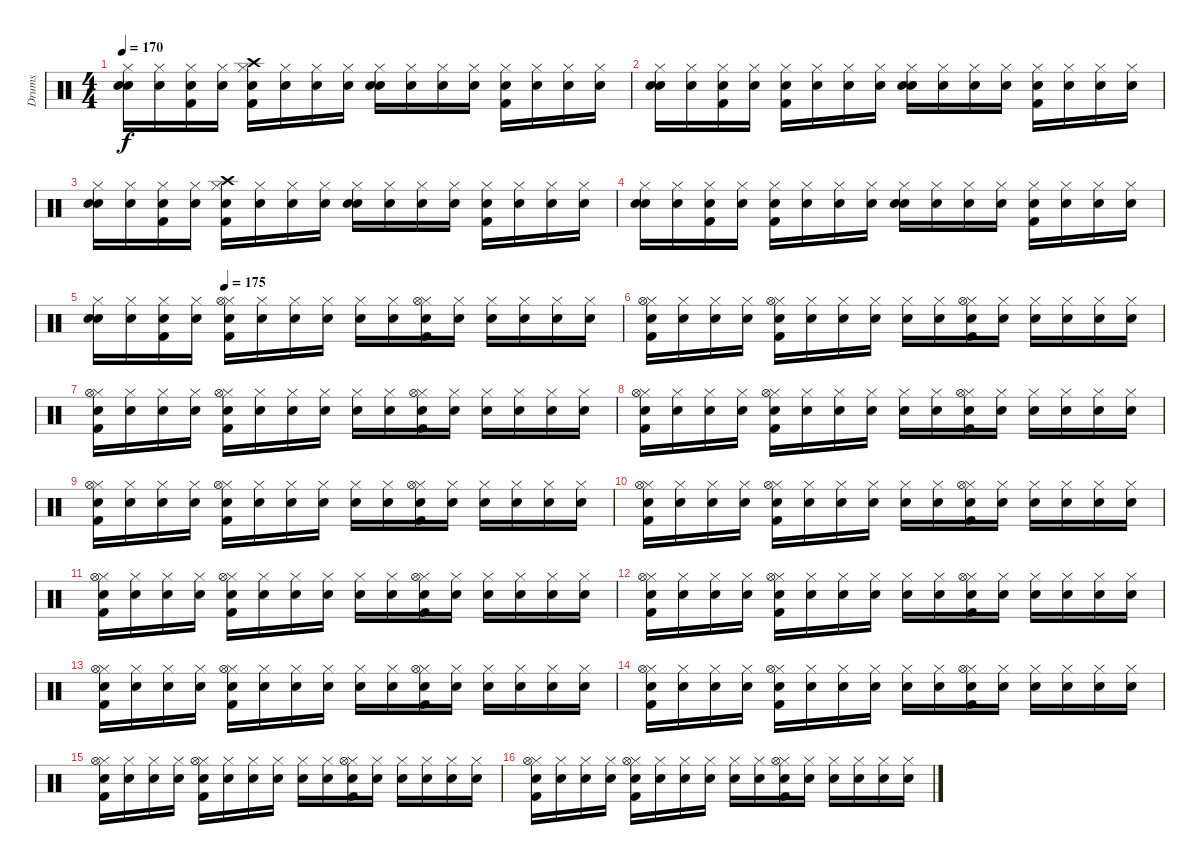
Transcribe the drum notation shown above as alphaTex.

\track ("Drums" "Drums") {instrument percussion}
\staff {score}
\articulation defaults
\ts (4 4)
\tempo 170
\clef neutral
\ks c
("Snare (hit)" "Snare (hit) 2" "Hi-Hat (closed)").16{dy f} ("Snare (hit)" "Hi-Hat (closed)").16 ("Snare (hit)" "Kick (hit) 2" "Hi-Hat (closed)").16 ("Snare (hit)" "Hi-Hat (closed)").16 ("Snare (hit)" "Kick (hit) 2" "Hi-Hat (closed)" "Crash high (hit)").16 ("Snare (hit)" "Hi-Hat (closed)").16 ("Snare (hit)" "Hi-Hat (closed)").16 ("Snare (hit)" "Hi-Hat (closed)").16 ("Snare (hit)" "Snare (hit) 2" "Hi-Hat (closed)").16 ("Snare (hit)" "Hi-Hat (closed)").16 ("Snare (hit)" "Hi-Hat (closed)").16 ("Snare (hit)" "Hi-Hat (closed)").16 ("Snare (hit)" "Kick (hit) 2" "Hi-Hat (closed)").16 ("Snare (hit)" "Hi-Hat (closed)").16 ("Snare (hit)" "Hi-Hat (closed)").16 ("Snare (hit)" "Hi-Hat (closed)").16 |
("Snare (hit)" "Snare (hit) 2" "Hi-Hat (closed)").16 ("Snare (hit)" "Hi-Hat (closed)").16 ("Snare (hit)" "Kick (hit) 2" "Hi-Hat (closed)").16 ("Snare (hit)" "Hi-Hat (closed)").16 ("Snare (hit)" "Kick (hit) 2" "Hi-Hat (closed)").16 ("Snare (hit)" "Hi-Hat (closed)").16 ("Snare (hit)" "Hi-Hat (closed)").16 ("Snare (hit)" "Hi-Hat (closed)").16 ("Snare (hit)" "Snare (hit) 2" "Hi-Hat (closed)").16 ("Snare (hit)" "Hi-Hat (closed)").16 ("Snare (hit)" "Hi-Hat (closed)").16 ("Snare (hit)" "Hi-Hat (closed)").16 ("Snare (hit)" "Kick (hit) 2" "Hi-Hat (closed)").16 ("Snare (hit)" "Hi-Hat (closed)").16 ("Snare (hit)" "Hi-Hat (closed)").16 ("Snare (hit)" "Hi-Hat (closed)").16 |
("Snare (hit)" "Snare (hit) 2" "Hi-Hat (closed)").16 ("Snare (hit)" "Hi-Hat (closed)").16 ("Snare (hit)" "Kick (hit) 2" "Hi-Hat (closed)").16 ("Snare (hit)" "Hi-Hat (closed)").16 ("Snare (hit)" "Kick (hit) 2" "Hi-Hat (closed)" "Crash high (hit)").16 ("Snare (hit)" "Hi-Hat (closed)").16 ("Snare (hit)" "Hi-Hat (closed)").16 ("Snare (hit)" "Hi-Hat (closed)").16 ("Snare (hit)" "Snare (hit) 2" "Hi-Hat (closed)").16 ("Snare (hit)" "Hi-Hat (closed)").16 ("Snare (hit)" "Hi-Hat (closed)").16 ("Snare (hit)" "Hi-Hat (closed)").16 ("Snare (hit)" "Kick (hit) 2" "Hi-Hat (closed)").16 ("Snare (hit)" "Hi-Hat (closed)").16 ("Snare (hit)" "Hi-Hat (closed)").16 ("Snare (hit)" "Hi-Hat (closed)").16 |
("Snare (hit)" "Snare (hit) 2" "Hi-Hat (closed)").16 ("Snare (hit)" "Hi-Hat (closed)").16 ("Snare (hit)" "Kick (hit) 2" "Hi-Hat (closed)").16 ("Snare (hit)" "Hi-Hat (closed)").16 ("Snare (hit)" "Kick (hit) 2" "Hi-Hat (closed)").16 ("Snare (hit)" "Hi-Hat (closed)").16 ("Snare (hit)" "Hi-Hat (closed)").16 ("Snare (hit)" "Hi-Hat (closed)").16 ("Snare (hit)" "Snare (hit) 2" "Hi-Hat (closed)").16 ("Snare (hit)" "Hi-Hat (closed)").16 ("Snare (hit)" "Hi-Hat (closed)").16 ("Snare (hit)" "Hi-Hat (closed)").16 ("Snare (hit)" "Kick (hit) 2" "Hi-Hat (closed)").16 ("Snare (hit)" "Hi-Hat (closed)").16 ("Snare (hit)" "Hi-Hat (closed)").16 ("Snare (hit)" "Hi-Hat (closed)").16 |
\tempo (175 0.25)
("Snare (hit)" "Snare (hit) 2" "Hi-Hat (closed)").16 ("Snare (hit)" "Hi-Hat (closed)").16 ("Snare (hit)" "Kick (hit) 2" "Hi-Hat (closed)").16 ("Snare (hit)" "Hi-Hat (closed)").16 ("Snare (hit)" "Kick (hit) 2" "Hi-Hat (closed)" "Hi-Hat (open)").16 ("Snare (hit)" "Hi-Hat (closed)").16 ("Snare (hit)" "Hi-Hat (closed)").16 ("Snare (hit)" "Hi-Hat (closed)").16 ("Snare (hit)" "Hi-Hat (closed)").16 ("Snare (hit)" "Hi-Hat (closed)").16 ("Snare (hit)" "Kick (hit) 2" "Hi-Hat (closed)" "Hi-Hat (open)").16 ("Snare (hit)" "Hi-Hat (closed)").16 ("Snare (hit)" "Hi-Hat (closed)").16 ("Snare (hit)" "Hi-Hat (closed)").16 ("Snare (hit)" "Hi-Hat (closed)").16 ("Snare (hit)" "Hi-Hat (closed)").16 |
("Snare (hit)" "Kick (hit) 2" "Hi-Hat (closed)" "Hi-Hat (open)").16 ("Snare (hit)" "Hi-Hat (closed)").16 ("Snare (hit)" "Hi-Hat (closed)").16 ("Snare (hit)" "Hi-Hat (closed)").16 ("Snare (hit)" "Kick (hit) 2" "Hi-Hat (closed)" "Hi-Hat (open)").16 ("Snare (hit)" "Hi-Hat (closed)").16 ("Snare (hit)" "Hi-Hat (closed)").16 ("Snare (hit)" "Hi-Hat (closed)").16 ("Snare (hit)" "Hi-Hat (closed)").16 ("Snare (hit)" "Hi-Hat (closed)").16 ("Snare (hit)" "Kick (hit) 2" "Hi-Hat (closed)" "Hi-Hat (open)").16 ("Snare (hit)" "Hi-Hat (closed)").16 ("Snare (hit)" "Hi-Hat (closed)").16 ("Snare (hit)" "Hi-Hat (closed)").16 ("Snare (hit)" "Hi-Hat (closed)").16 ("Snare (hit)" "Hi-Hat (closed)").16 |
("Snare (hit)" "Kick (hit) 2" "Hi-Hat (closed)" "Hi-Hat (open)").16 ("Snare (hit)" "Hi-Hat (closed)").16 ("Snare (hit)" "Hi-Hat (closed)").16 ("Snare (hit)" "Hi-Hat (closed)").16 ("Snare (hit)" "Kick (hit) 2" "Hi-Hat (closed)" "Hi-Hat (open)").16 ("Snare (hit)" "Hi-Hat (closed)").16 ("Snare (hit)" "Hi-Hat (closed)").16 ("Snare (hit)" "Hi-Hat (closed)").16 ("Snare (hit)" "Hi-Hat (closed)").16 ("Snare (hit)" "Hi-Hat (closed)").16 ("Snare (hit)" "Kick (hit) 2" "Hi-Hat (closed)" "Hi-Hat (open)").16 ("Snare (hit)" "Hi-Hat (closed)").16 ("Snare (hit)" "Hi-Hat (closed)").16 ("Snare (hit)" "Hi-Hat (closed)").16 ("Snare (hit)" "Hi-Hat (closed)").16 ("Snare (hit)" "Hi-Hat (closed)").16 |
("Snare (hit)" "Kick (hit) 2" "Hi-Hat (closed)" "Hi-Hat (open)").16 ("Snare (hit)" "Hi-Hat (closed)").16 ("Snare (hit)" "Hi-Hat (closed)").16 ("Snare (hit)" "Hi-Hat (closed)").16 ("Snare (hit)" "Kick (hit) 2" "Hi-Hat (closed)" "Hi-Hat (open)").16 ("Snare (hit)" "Hi-Hat (closed)").16 ("Snare (hit)" "Hi-Hat (closed)").16 ("Snare (hit)" "Hi-Hat (closed)").16 ("Snare (hit)" "Hi-Hat (closed)").16 ("Snare (hit)" "Hi-Hat (closed)").16 ("Snare (hit)" "Kick (hit) 2" "Hi-Hat (closed)" "Hi-Hat (open)").16 ("Snare (hit)" "Hi-Hat (closed)").16 ("Snare (hit)" "Hi-Hat (closed)").16 ("Snare (hit)" "Hi-Hat (closed)").16 ("Snare (hit)" "Hi-Hat (closed)").16 ("Snare (hit)" "Hi-Hat (closed)").16 |
("Snare (hit)" "Kick (hit) 2" "Hi-Hat (closed)" "Hi-Hat (open)").16 ("Snare (hit)" "Hi-Hat (closed)").16 ("Snare (hit)" "Hi-Hat (closed)").16 ("Snare (hit)" "Hi-Hat (closed)").16 ("Snare (hit)" "Kick (hit) 2" "Hi-Hat (closed)" "Hi-Hat (open)").16 ("Snare (hit)" "Hi-Hat (closed)").16 ("Snare (hit)" "Hi-Hat (closed)").16 ("Snare (hit)" "Hi-Hat (closed)").16 ("Snare (hit)" "Hi-Hat (closed)").16 ("Snare (hit)" "Hi-Hat (closed)").16 ("Snare (hit)" "Kick (hit) 2" "Hi-Hat (closed)" "Hi-Hat (open)").16 ("Snare (hit)" "Hi-Hat (closed)").16 ("Snare (hit)" "Hi-Hat (closed)").16 ("Snare (hit)" "Hi-Hat (closed)").16 ("Snare (hit)" "Hi-Hat (closed)").16 ("Snare (hit)" "Hi-Hat (closed)").16 |
("Snare (hit)" "Kick (hit) 2" "Hi-Hat (closed)" "Hi-Hat (open)").16 ("Snare (hit)" "Hi-Hat (closed)").16 ("Snare (hit)" "Hi-Hat (closed)").16 ("Snare (hit)" "Hi-Hat (closed)").16 ("Snare (hit)" "Kick (hit) 2" "Hi-Hat (closed)" "Hi-Hat (open)").16 ("Snare (hit)" "Hi-Hat (closed)").16 ("Snare (hit)" "Hi-Hat (closed)").16 ("Snare (hit)" "Hi-Hat (closed)").16 ("Snare (hit)" "Hi-Hat (closed)").16 ("Snare (hit)" "Hi-Hat (closed)").16 ("Snare (hit)" "Kick (hit) 2" "Hi-Hat (closed)" "Hi-Hat (open)").16 ("Snare (hit)" "Hi-Hat (closed)").16 ("Snare (hit)" "Hi-Hat (closed)").16 ("Snare (hit)" "Hi-Hat (closed)").16 ("Snare (hit)" "Hi-Hat (closed)").16 ("Snare (hit)" "Hi-Hat (closed)").16 |
("Snare (hit)" "Kick (hit) 2" "Hi-Hat (closed)" "Hi-Hat (open)").16 ("Snare (hit)" "Hi-Hat (closed)").16 ("Snare (hit)" "Hi-Hat (closed)").16 ("Snare (hit)" "Hi-Hat (closed)").16 ("Snare (hit)" "Kick (hit) 2" "Hi-Hat (closed)" "Hi-Hat (open)").16 ("Snare (hit)" "Hi-Hat (closed)").16 ("Snare (hit)" "Hi-Hat (closed)").16 ("Snare (hit)" "Hi-Hat (closed)").16 ("Snare (hit)" "Hi-Hat (closed)").16 ("Snare (hit)" "Hi-Hat (closed)").16 ("Snare (hit)" "Kick (hit) 2" "Hi-Hat (closed)" "Hi-Hat (open)").16 ("Snare (hit)" "Hi-Hat (closed)").16 ("Snare (hit)" "Hi-Hat (closed)").16 ("Snare (hit)" "Hi-Hat (closed)").16 ("Snare (hit)" "Hi-Hat (closed)").16 ("Snare (hit)" "Hi-Hat (closed)").16 |
("Snare (hit)" "Kick (hit) 2" "Hi-Hat (closed)" "Hi-Hat (open)").16 ("Snare (hit)" "Hi-Hat (closed)").16 ("Snare (hit)" "Hi-Hat (closed)").16 ("Snare (hit)" "Hi-Hat (closed)").16 ("Snare (hit)" "Kick (hit) 2" "Hi-Hat (closed)" "Hi-Hat (open)").16 ("Snare (hit)" "Hi-Hat (closed)").16 ("Snare (hit)" "Hi-Hat (closed)").16 ("Snare (hit)" "Hi-Hat (closed)").16 ("Snare (hit)" "Hi-Hat (closed)").16 ("Snare (hit)" "Hi-Hat (closed)").16 ("Snare (hit)" "Kick (hit) 2" "Hi-Hat (closed)" "Hi-Hat (open)").16 ("Snare (hit)" "Hi-Hat (closed)").16 ("Snare (hit)" "Hi-Hat (closed)").16 ("Snare (hit)" "Hi-Hat (closed)").16 ("Snare (hit)" "Hi-Hat (closed)").16 ("Snare (hit)" "Hi-Hat (closed)").16 |
("Snare (hit)" "Kick (hit) 2" "Hi-Hat (closed)" "Hi-Hat (open)").16 ("Snare (hit)" "Hi-Hat (closed)").16 ("Snare (hit)" "Hi-Hat (closed)").16 ("Snare (hit)" "Hi-Hat (closed)").16 ("Snare (hit)" "Kick (hit) 2" "Hi-Hat (closed)" "Hi-Hat (open)").16 ("Snare (hit)" "Hi-Hat (closed)").16 ("Snare (hit)" "Hi-Hat (closed)").16 ("Snare (hit)" "Hi-Hat (closed)").16 ("Snare (hit)" "Hi-Hat (closed)").16 ("Snare (hit)" "Hi-Hat (closed)").16 ("Snare (hit)" "Kick (hit) 2" "Hi-Hat (closed)" "Hi-Hat (open)").16 ("Snare (hit)" "Hi-Hat (closed)").16 ("Snare (hit)" "Hi-Hat (closed)").16 ("Snare (hit)" "Hi-Hat (closed)").16 ("Snare (hit)" "Hi-Hat (closed)").16 ("Snare (hit)" "Hi-Hat (closed)").16 |
("Snare (hit)" "Kick (hit) 2" "Hi-Hat (closed)" "Hi-Hat (open)").16 ("Snare (hit)" "Hi-Hat (closed)").16 ("Snare (hit)" "Hi-Hat (closed)").16 ("Snare (hit)" "Hi-Hat (closed)").16 ("Snare (hit)" "Kick (hit) 2" "Hi-Hat (closed)" "Hi-Hat (open)").16 ("Snare (hit)" "Hi-Hat (closed)").16 ("Snare (hit)" "Hi-Hat (closed)").16 ("Snare (hit)" "Hi-Hat (closed)").16 ("Snare (hit)" "Hi-Hat (closed)").16 ("Snare (hit)" "Hi-Hat (closed)").16 ("Snare (hit)" "Kick (hit) 2" "Hi-Hat (closed)" "Hi-Hat (open)").16 ("Snare (hit)" "Hi-Hat (closed)").16 ("Snare (hit)" "Hi-Hat (closed)").16 ("Snare (hit)" "Hi-Hat (closed)").16 ("Snare (hit)" "Hi-Hat (closed)").16 ("Snare (hit)" "Hi-Hat (closed)").16 |
("Snare (hit)" "Kick (hit) 2" "Hi-Hat (closed)" "Hi-Hat (open)").16 ("Snare (hit)" "Hi-Hat (closed)").16 ("Snare (hit)" "Hi-Hat (closed)").16 ("Snare (hit)" "Hi-Hat (closed)").16 ("Snare (hit)" "Kick (hit) 2" "Hi-Hat (closed)" "Hi-Hat (open)").16 ("Snare (hit)" "Hi-Hat (closed)").16 ("Snare (hit)" "Hi-Hat (closed)").16 ("Snare (hit)" "Hi-Hat (closed)").16 ("Snare (hit)" "Hi-Hat (closed)").16 ("Snare (hit)" "Hi-Hat (closed)").16 ("Snare (hit)" "Kick (hit) 2" "Hi-Hat (closed)" "Hi-Hat (open)").16 ("Snare (hit)" "Hi-Hat (closed)").16 ("Snare (hit)" "Hi-Hat (closed)").16 ("Snare (hit)" "Hi-Hat (closed)").16 ("Snare (hit)" "Hi-Hat (closed)").16 ("Snare (hit)" "Hi-Hat (closed)").16 |
("Snare (hit)" "Kick (hit) 2" "Hi-Hat (closed)" "Hi-Hat (open)").16 ("Snare (hit)" "Hi-Hat (closed)").16 ("Snare (hit)" "Hi-Hat (closed)").16 ("Snare (hit)" "Hi-Hat (closed)").16 ("Snare (hit)" "Kick (hit) 2" "Hi-Hat (closed)" "Hi-Hat (open)").16 ("Snare (hit)" "Hi-Hat (closed)").16 ("Snare (hit)" "Hi-Hat (closed)").16 ("Snare (hit)" "Hi-Hat (closed)").16 ("Snare (hit)" "Hi-Hat (closed)").16 ("Snare (hit)" "Hi-Hat (closed)").16 ("Snare (hit)" "Kick (hit) 2" "Hi-Hat (closed)" "Hi-Hat (open)").16 ("Snare (hit)" "Hi-Hat (closed)").16 ("Snare (hit)" "Hi-Hat (closed)").16 ("Snare (hit)" "Hi-Hat (closed)").16 ("Snare (hit)" "Hi-Hat (closed)").16 ("Snare (hit)" "Hi-Hat (closed)").16
